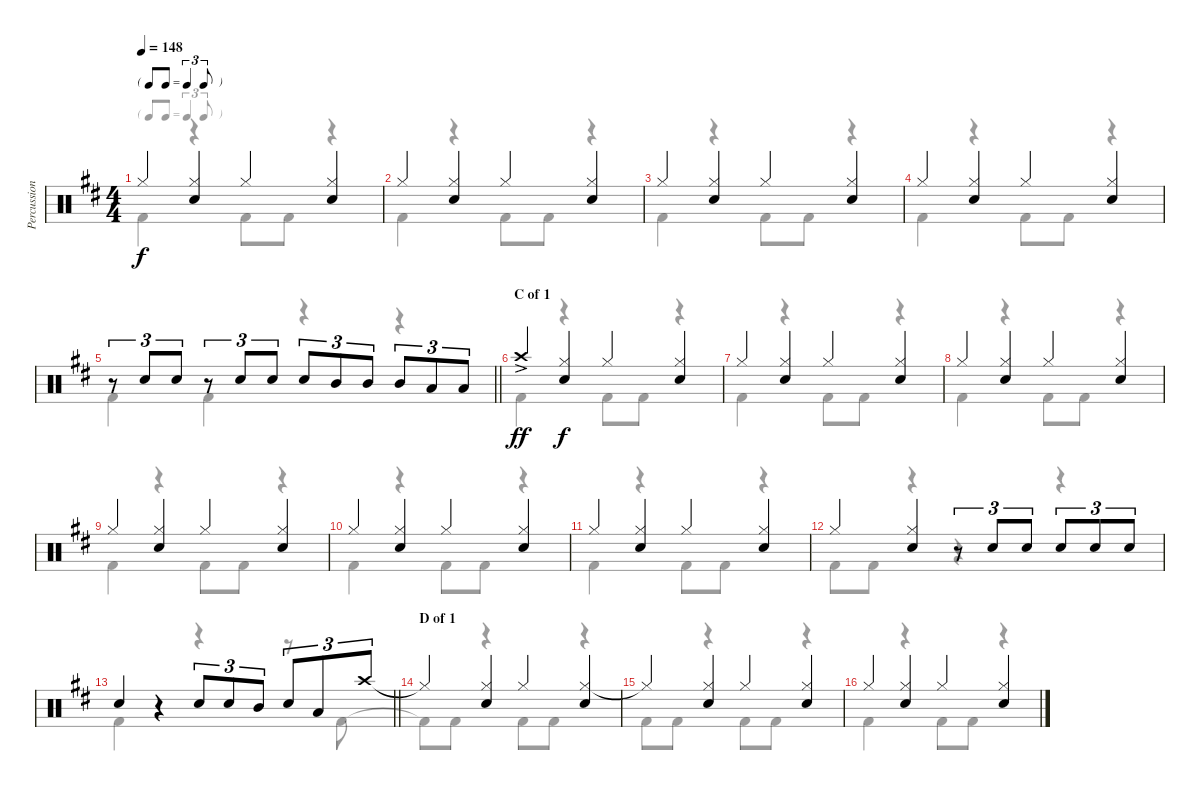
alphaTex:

\track ("Percussion" "Percussion") {instrument percussion}
\staff {score}
\articulation defaults
\voice
\ts (4 4)
\tf triplet8th
\tempo 148
\clef neutral
\ks bminor "Hi-Hat (closed)".4{dy f}
("Hi-Hat (closed)" "Snare (hit) 2").4 "Hi-Hat (closed)".4 ("Hi-Hat (closed)" "Snare (hit) 2").4 |
"Hi-Hat (closed)".4 ("Hi-Hat (closed)" "Snare (hit) 2").4 "Hi-Hat (closed)".4 ("Hi-Hat (closed)" "Snare (hit) 2").4 |
"Hi-Hat (closed)".4 ("Hi-Hat (closed)" "Snare (hit) 2").4 "Hi-Hat (closed)".4 ("Hi-Hat (closed)" "Snare (hit) 2").4 |
"Hi-Hat (closed)".4 ("Hi-Hat (closed)" "Snare (hit) 2").4 "Hi-Hat (closed)".4 ("Hi-Hat (closed)" "Snare (hit) 2").4 |
\barLineRight lightlight
r.8{tu (3 2)} "Snare (hit) 2".8{tu (3 2)} "Snare (hit) 2".8{tu (3 2)} r.8{tu (3 2)} "Snare (hit) 2".8{tu (3 2)} "Snare (hit) 2".8{tu (3 2)} "Snare (hit) 2".8{tu (3 2)} "Mid Tom (hit)".8{tu (3 2)} "Mid Tom (hit)".8{tu (3 2)} "Mid Tom (hit)".8{tu (3 2)} "Low Tom (hit)".8{tu (3 2)} "Low Tom (hit)".8{tu (3 2)} |
\section ("" "C of 1")
"Crash high (hit)"{ac}.4{dy ff} ("Hi-Hat (closed)" "Snare (hit) 2").4{dy f} "Hi-Hat (closed)".4 ("Hi-Hat (closed)" "Snare (hit) 2").4 |
"Hi-Hat (closed)".4 ("Hi-Hat (closed)" "Snare (hit) 2").4 "Hi-Hat (closed)".4 ("Hi-Hat (closed)" "Snare (hit) 2").4 |
"Hi-Hat (closed)".4 ("Hi-Hat (closed)" "Snare (hit) 2").4 "Hi-Hat (closed)".4 ("Hi-Hat (closed)" "Snare (hit) 2").4 |
"Hi-Hat (closed)".4 ("Hi-Hat (closed)" "Snare (hit) 2").4 "Hi-Hat (closed)".4 ("Hi-Hat (closed)" "Snare (hit) 2").4 |
"Hi-Hat (closed)".4 ("Hi-Hat (closed)" "Snare (hit) 2").4 "Hi-Hat (closed)".4 ("Hi-Hat (closed)" "Snare (hit) 2").4 |
"Hi-Hat (closed)".4 ("Hi-Hat (closed)" "Snare (hit) 2").4 "Hi-Hat (closed)".4 ("Hi-Hat (closed)" "Snare (hit) 2").4 |
"Hi-Hat (closed)".4 ("Hi-Hat (closed)" "Snare (hit) 2").4 r.8{tu (3 2)} "Snare (hit) 2".8{tu (3 2)} "Snare (hit) 2".8{tu (3 2)} "Snare (hit) 2".8{tu (3 2)} "Snare (hit) 2".8{tu (3 2)} "Snare (hit) 2".8{tu (3 2)} |
\barLineRight lightlight "Snare (hit) 2".4
r.4 "Snare (hit) 2".8{tu (3 2)} "Snare (hit) 2".8{tu (3 2)} "Mid Tom (hit)".8{tu (3 2)} "Snare (hit) 2".8{tu (3 2)} "Low Tom (hit)".8{tu (3 2)} "Crash high (hit)".8{tu (3 2)} |
\section ("" "D of 1")
"Hi-Hat (closed)"{t}.4 ("Hi-Hat (closed)" "Snare (hit) 2").4 "Hi-Hat (closed)".4 ("Hi-Hat (closed)" "Snare (hit) 2").4 |
"Hi-Hat (closed)"{t}.4 ("Hi-Hat (closed)" "Snare (hit) 2").4 "Hi-Hat (closed)".4 ("Hi-Hat (closed)" "Snare (hit) 2").4 |
"Hi-Hat (closed)".4 ("Hi-Hat (closed)" "Snare (hit) 2").4 "Hi-Hat (closed)".4 ("Hi-Hat (closed)" "Snare (hit) 2").4
\voice
\clef neutral
\ottava regular
\simile none
\ks bminor "Kick (hit) 2".4{dy f}
r.4 "Kick (hit) 2".8 "Kick (hit) 2".8 r.4 |
"Kick (hit) 2".4 r.4 "Kick (hit) 2".8 "Kick (hit) 2".8 r.4 |
"Kick (hit) 2".4 r.4 "Kick (hit) 2".8 "Kick (hit) 2".8 r.4 |
"Kick (hit) 2".4 r.4 "Kick (hit) 2".8 "Kick (hit) 2".8 r.4 |
\barLineRight lightlight "Kick (hit) 2".4 "Kick (hit) 2".4
r.4 r.4 |
"Kick (hit) 2".4 r.4 "Kick (hit) 2".8 "Kick (hit) 2".8 r.4 |
"Kick (hit) 2".4 r.4 "Kick (hit) 2".8 "Kick (hit) 2".8 r.4 |
"Kick (hit) 2".4 r.4 "Kick (hit) 2".8 "Kick (hit) 2".8 r.4 |
"Kick (hit) 2".4 r.4 "Kick (hit) 2".8 "Kick (hit) 2".8 r.4 |
"Kick (hit) 2".4 r.4 "Kick (hit) 2".8 "Kick (hit) 2".8 r.4 |
"Kick (hit) 2".4 r.4 "Kick (hit) 2".8 "Kick (hit) 2".8 r.4 |
"Kick (hit) 2".8 "Kick (hit) 2".8 r.4 r.4 r.4 |
\barLineRight lightlight "Kick (hit) 2".4
r.4 r.4 r.8 "Kick (hit) 2".8 |
"Kick (hit) 2"{t}.8 "Kick (hit) 2".8 r.4 "Kick (hit) 2".8 "Kick (hit) 2".8 r.4 |
"Kick (hit) 2".8 "Kick (hit) 2".8 r.4 "Kick (hit) 2".8 "Kick (hit) 2".8 r.4 |
"Kick (hit) 2".4 r.4 "Kick (hit) 2".8 "Kick (hit) 2".8 r.4
